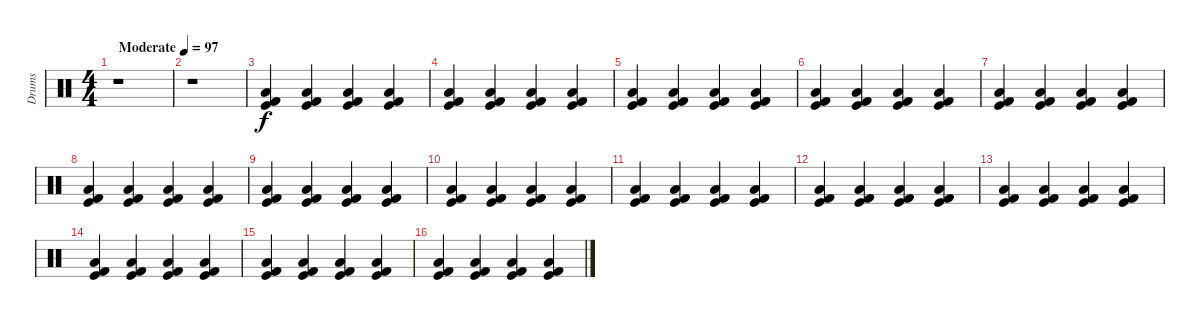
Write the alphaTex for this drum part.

\track ("Drums" "Drums") {instrument percussion}
\staff {score}
\articulation defaults
\ts (4 4)
\tempo (97 "Moderate")
\clef neutral
\ks c
r.1{dy f} |
r.1 |
("Low Tom (hit)" "Kick (hit) 2" "Kick (hit)").4 ("Low Tom (hit)" "Kick (hit) 2" "Kick (hit)").4 ("Low Tom (hit)" "Kick (hit) 2" "Kick (hit)").4 ("Low Tom (hit)" "Kick (hit) 2" "Kick (hit)").4 |
("Low Tom (hit)" "Kick (hit) 2" "Kick (hit)").4 ("Low Tom (hit)" "Kick (hit) 2" "Kick (hit)").4 ("Low Tom (hit)" "Kick (hit) 2" "Kick (hit)").4 ("Low Tom (hit)" "Kick (hit) 2" "Kick (hit)").4 |
("Low Tom (hit)" "Kick (hit) 2" "Kick (hit)").4 ("Low Tom (hit)" "Kick (hit) 2" "Kick (hit)").4 ("Low Tom (hit)" "Kick (hit) 2" "Kick (hit)").4 ("Low Tom (hit)" "Kick (hit) 2" "Kick (hit)").4 |
("Low Tom (hit)" "Kick (hit) 2" "Kick (hit)").4 ("Low Tom (hit)" "Kick (hit) 2" "Kick (hit)").4 ("Low Tom (hit)" "Kick (hit) 2" "Kick (hit)").4 ("Low Tom (hit)" "Kick (hit) 2" "Kick (hit)").4 |
("Low Tom (hit)" "Kick (hit) 2" "Kick (hit)").4 ("Low Tom (hit)" "Kick (hit) 2" "Kick (hit)").4 ("Low Tom (hit)" "Kick (hit) 2" "Kick (hit)").4 ("Low Tom (hit)" "Kick (hit) 2" "Kick (hit)").4 |
("Low Tom (hit)" "Kick (hit) 2" "Kick (hit)").4 ("Low Tom (hit)" "Kick (hit) 2" "Kick (hit)").4 ("Low Tom (hit)" "Kick (hit) 2" "Kick (hit)").4 ("Low Tom (hit)" "Kick (hit) 2" "Kick (hit)").4 |
("Low Tom (hit)" "Kick (hit) 2" "Kick (hit)").4 ("Low Tom (hit)" "Kick (hit) 2" "Kick (hit)").4 ("Low Tom (hit)" "Kick (hit) 2" "Kick (hit)").4 ("Low Tom (hit)" "Kick (hit) 2" "Kick (hit)").4 |
("Low Tom (hit)" "Kick (hit) 2" "Kick (hit)").4 ("Low Tom (hit)" "Kick (hit) 2" "Kick (hit)").4 ("Low Tom (hit)" "Kick (hit) 2" "Kick (hit)").4 ("Low Tom (hit)" "Kick (hit) 2" "Kick (hit)").4 |
("Low Tom (hit)" "Kick (hit) 2" "Kick (hit)").4 ("Low Tom (hit)" "Kick (hit) 2" "Kick (hit)").4 ("Low Tom (hit)" "Kick (hit) 2" "Kick (hit)").4 ("Low Tom (hit)" "Kick (hit) 2" "Kick (hit)").4 |
("Low Tom (hit)" "Kick (hit) 2" "Kick (hit)").4 ("Low Tom (hit)" "Kick (hit) 2" "Kick (hit)").4 ("Low Tom (hit)" "Kick (hit) 2" "Kick (hit)").4 ("Low Tom (hit)" "Kick (hit) 2" "Kick (hit)").4 |
("Low Tom (hit)" "Kick (hit) 2" "Kick (hit)").4 ("Low Tom (hit)" "Kick (hit) 2" "Kick (hit)").4 ("Low Tom (hit)" "Kick (hit) 2" "Kick (hit)").4 ("Low Tom (hit)" "Kick (hit) 2" "Kick (hit)").4 |
("Low Tom (hit)" "Kick (hit) 2" "Kick (hit)").4 ("Low Tom (hit)" "Kick (hit) 2" "Kick (hit)").4 ("Low Tom (hit)" "Kick (hit) 2" "Kick (hit)").4 ("Low Tom (hit)" "Kick (hit) 2" "Kick (hit)").4 |
("Low Tom (hit)" "Kick (hit) 2" "Kick (hit)").4 ("Low Tom (hit)" "Kick (hit) 2" "Kick (hit)").4 ("Low Tom (hit)" "Kick (hit) 2" "Kick (hit)").4 ("Low Tom (hit)" "Kick (hit) 2" "Kick (hit)").4 |
("Low Tom (hit)" "Kick (hit) 2" "Kick (hit)").4 ("Low Tom (hit)" "Kick (hit) 2" "Kick (hit)").4 ("Low Tom (hit)" "Kick (hit) 2" "Kick (hit)").4 ("Low Tom (hit)" "Kick (hit) 2" "Kick (hit)").4
